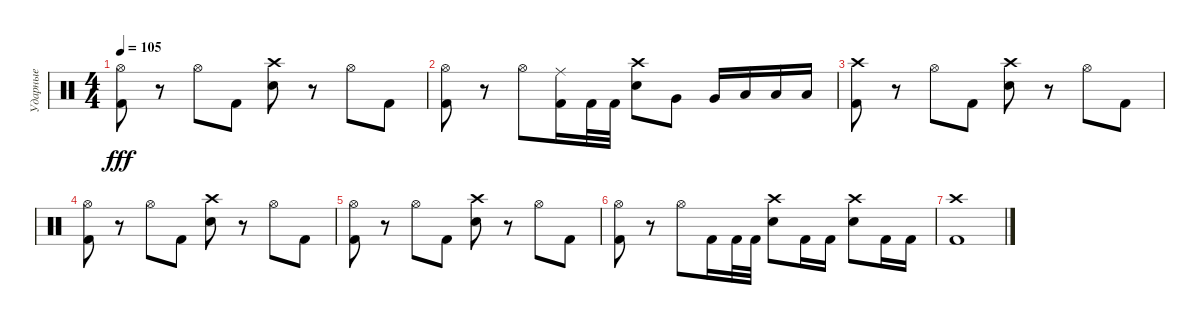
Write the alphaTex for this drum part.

\track ("Ударные" "Ударные") {instrument percussion}
\staff {score}
\articulation defaults
\ts (4 4)
\tempo 105
\clef neutral
\ks c
("Hi-Hat (open)" "Kick (hit) 2").8{dy fff} r.8 "Hi-Hat (open)".8 "Kick (hit) 2".8 ("Crash high (hit)" "Electric Snare (hit)").8 r.8 "Hi-Hat (open)".8 "Kick (hit) 2".8 |
("Hi-Hat (open)" "Kick (hit) 2").8 r.8 "Hi-Hat (open)".8 ("Ride (middle)" "Kick (hit) 2").16 "Kick (hit) 2".32 "Kick (hit) 2".32 ("Crash high (hit)" "Electric Snare (hit)").8 "Very Low Tom (hit)".8 "Very Low Tom (hit)".16 "Low Floor Tom (hit)".16 "Low Floor Tom (hit)".16 "Low Floor Tom (hit)".16 |
("Crash high (hit)" "Kick (hit) 2").8 r.8 "Hi-Hat (open)".8 "Kick (hit) 2".8 ("Crash high (hit)" "Electric Snare (hit)").8 r.8 "Hi-Hat (open)".8 "Kick (hit) 2".8 |
("Hi-Hat (open)" "Kick (hit) 2").8 r.8 "Hi-Hat (open)".8 "Kick (hit) 2".8 ("Crash high (hit)" "Electric Snare (hit)").8 r.8 "Hi-Hat (open)".8 "Kick (hit) 2".8 |
("Hi-Hat (open)" "Kick (hit) 2").8 r.8 "Hi-Hat (open)".8 "Kick (hit) 2".8 ("Crash high (hit)" "Electric Snare (hit)").8 r.8 "Hi-Hat (open)".8 "Kick (hit) 2".8 |
("Hi-Hat (open)" "Kick (hit) 2").8 r.8 "Hi-Hat (open)".8 "Kick (hit) 2".16 "Kick (hit) 2".32 "Kick (hit) 2".32 ("Crash high (hit)" "Electric Snare (hit)").8 "Kick (hit) 2".16 "Kick (hit) 2".16 ("Crash high (hit)" "Electric Snare (hit)").8 "Kick (hit) 2".16 "Kick (hit) 2".16 |
("Crash high (hit)" "Kick (hit) 2").1
